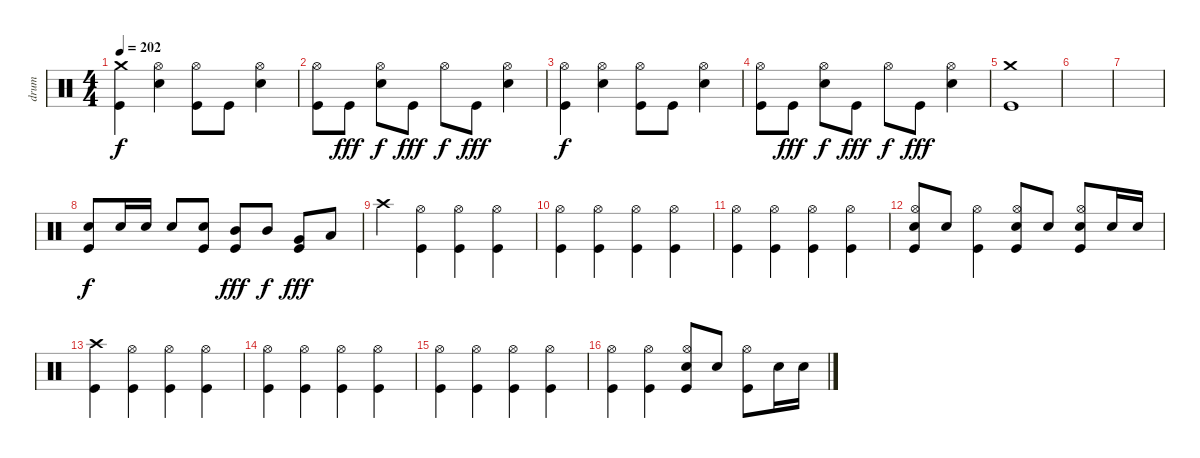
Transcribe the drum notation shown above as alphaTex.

\track ("drum" "drum") {instrument percussion}
\staff {score}
\articulation defaults
\ts (4 4)
\tempo 202
\clef neutral
\ks c
("Crash medium (hit)" "Kick (hit)").4{dy f} ("Hi-Hat (open)" "Electric Snare (hit)").4 ("Hi-Hat (open)" "Kick (hit)").8 "Kick (hit)".8 ("Hi-Hat (open)" "Electric Snare (hit)").4 |
("Hi-Hat (open)" "Kick (hit)").8 "Kick (hit)".8{dy fff} ("Hi-Hat (open)" "Electric Snare (hit)").8{dy f} "Kick (hit)".8{dy fff} "Hi-Hat (open)".8{dy f} "Kick (hit)".8{dy fff} ("Hi-Hat (open)" "Electric Snare (hit)").4 |
("Hi-Hat (open)" "Kick (hit)").4{dy f} ("Hi-Hat (open)" "Electric Snare (hit)").4 ("Hi-Hat (open)" "Kick (hit)").8 "Kick (hit)".8 ("Hi-Hat (open)" "Electric Snare (hit)").4 |
("Hi-Hat (open)" "Kick (hit)").8 "Kick (hit)".8{dy fff} ("Hi-Hat (open)" "Electric Snare (hit)").8{dy f} "Kick (hit)".8{dy fff} "Hi-Hat (open)".8{dy f} "Kick (hit)".8{dy fff} ("Hi-Hat (open)" "Electric Snare (hit)").4 |
("Crash medium (hit)" "Kick (hit)").1 |
|
|
("Electric Snare (hit)" "Kick (hit)").8{dy f} "Electric Snare (hit)".16 "Electric Snare (hit)".16 "Electric Snare (hit)".8 ("Electric Snare (hit)" "Kick (hit)").8 ("Mid Tom (hit)" "Kick (hit)").8{dy fff} "Mid Tom (hit)".8{dy f} ("Very Low Tom (hit)" "Kick (hit)").8{dy fff} "Low Floor Tom (hit)".8 |
"Crash high (hit)".4 ("Hi-Hat (open)" "Kick (hit)").4 ("Hi-Hat (open)" "Kick (hit)").4 ("Hi-Hat (open)" "Kick (hit)").4 |
("Hi-Hat (open)" "Kick (hit)").4 ("Hi-Hat (open)" "Kick (hit)").4 ("Hi-Hat (open)" "Kick (hit)").4 ("Hi-Hat (open)" "Kick (hit)").4 |
("Hi-Hat (open)" "Kick (hit)").4 ("Hi-Hat (open)" "Kick (hit)").4 ("Hi-Hat (open)" "Kick (hit)").4 ("Hi-Hat (open)" "Kick (hit)").4 |
("Hi-Hat (open)" "Snare (hit) 2" "Kick (hit)").8 "Snare (hit) 2".8 ("Hi-Hat (open)" "Kick (hit)").4 ("Hi-Hat (open)" "Snare (hit) 2" "Kick (hit)").8 "Snare (hit) 2".8 ("Hi-Hat (open)" "Snare (hit) 2" "Kick (hit)").8 "Snare (hit) 2".16 "Snare (hit) 2".16 |
("Crash high (hit)" "Kick (hit)").4 ("Hi-Hat (open)" "Kick (hit)").4 ("Hi-Hat (open)" "Kick (hit)").4 ("Hi-Hat (open)" "Kick (hit)").4 |
("Hi-Hat (open)" "Kick (hit)").4 ("Hi-Hat (open)" "Kick (hit)").4 ("Hi-Hat (open)" "Kick (hit)").4 ("Hi-Hat (open)" "Kick (hit)").4 |
("Hi-Hat (open)" "Kick (hit)").4 ("Hi-Hat (open)" "Kick (hit)").4 ("Hi-Hat (open)" "Kick (hit)").4 ("Hi-Hat (open)" "Kick (hit)").4 |
("Hi-Hat (open)" "Kick (hit)").4 ("Hi-Hat (open)" "Kick (hit)").4 ("Hi-Hat (open)" "Snare (hit) 2" "Kick (hit)").8 "Snare (hit) 2".8 ("Hi-Hat (open)" "Kick (hit)").8 "Snare (hit) 2".16 "Snare (hit) 2".16
